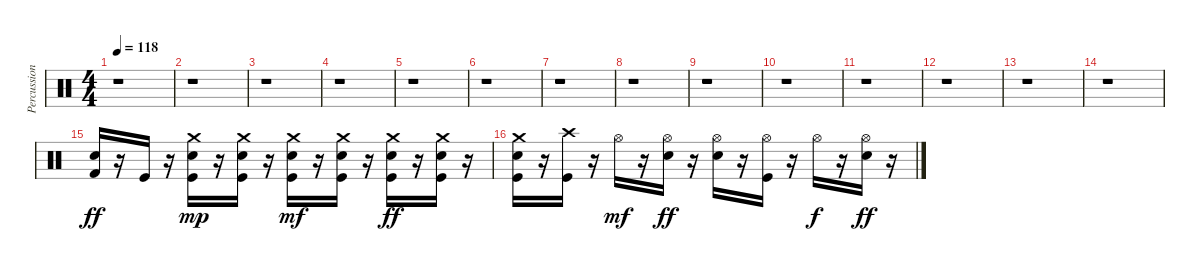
\track ("Percussion" "Percussion") {instrument percussion}
\staff {score}
\articulation defaults
\ts (4 4)
\tempo 118
\clef neutral
\ks c
r.1{dy ff} |
r.1 |
r.1 |
r.1 |
r.1 |
r.1 |
r.1 |
r.1 |
r.1 |
r.1 |
r.1 |
r.1 |
r.1 |
r.1 |
("Kick (hit) 2" "Electric Snare (hit)").16 r.16 "Kick (hit)".16 r.16 ("Electric Snare (hit)" "Kick (hit)" "Crash medium (hit)").16{dy mp} r.16 ("Electric Snare (hit)" "Kick (hit)" "Crash medium (hit)").16 r.16 ("Electric Snare (hit)" "Kick (hit)" "Crash medium (hit)").16{dy mf} r.16 ("Electric Snare (hit)" "Kick (hit)" "Crash medium (hit)").16 r.16 ("Electric Snare (hit)" "Kick (hit)" "Crash medium (hit)").16{dy ff} r.16 ("Electric Snare (hit)" "Kick (hit)" "Crash medium (hit)").16 r.16 |
("Electric Snare (hit)" "Kick (hit)" "Crash medium (hit)").16 r.16 ("Kick (hit)" "Crash high (hit)").16 r.16 "Hi-Hat (open)".16{dy mf} r.16 ("Hi-Hat (open)" "Snare (hit) 2").16{dy ff} r.16 ("Hi-Hat (open)" "Snare (hit) 2").16 r.16 ("Hi-Hat (open)" "Kick (hit)").16 r.16 "Hi-Hat (open)".16{dy f} r.16 ("Hi-Hat (open)" "Snare (hit) 2").16{dy ff} r.16
